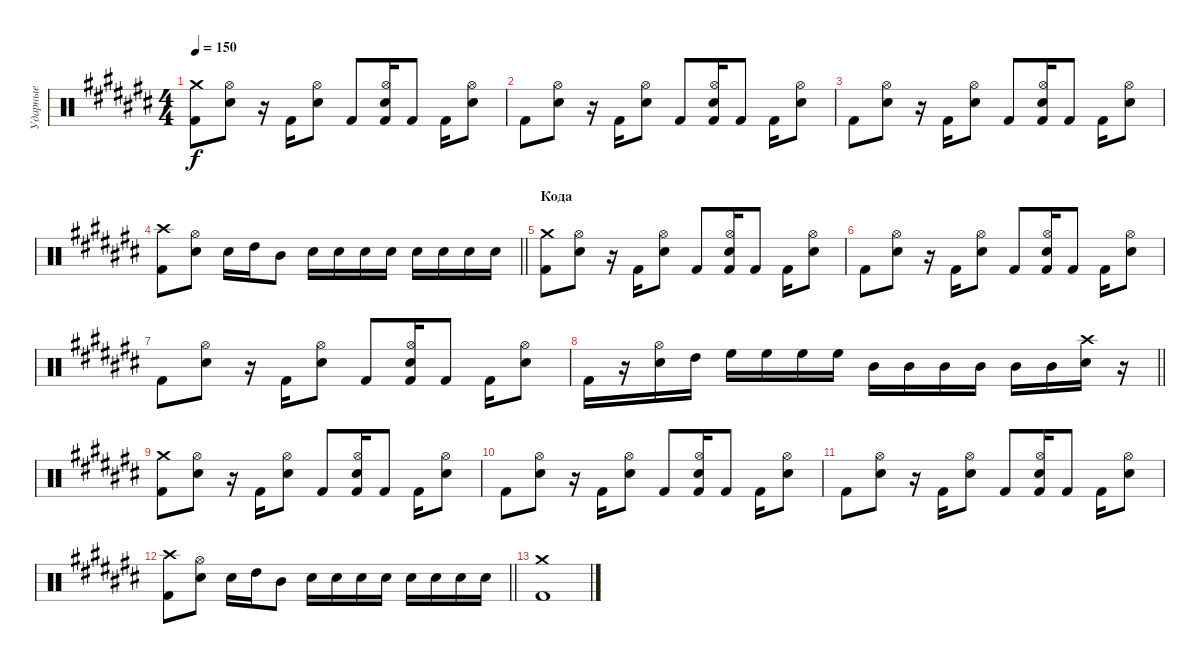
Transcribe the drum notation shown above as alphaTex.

\track ("Ударные" "Ударные") {instrument percussion}
\staff {score}
\articulation defaults
\ts (4 4)
\tempo 150
\clef neutral
\ks a#minor
("Crash medium (hit)" "Kick (hit) 2").8{dy f} ("Hi-Hat (open)" "Electric Snare (hit)").8 r.16 "Kick (hit) 2".16 ("Hi-Hat (open)" "Electric Snare (hit)").8 "Kick (hit) 2".8 ("Kick (hit) 2" "Hi-Hat (open)" "Electric Snare (hit)").16 "Kick (hit) 2".8 "Kick (hit) 2".16 ("Hi-Hat (open)" "Electric Snare (hit)").8 |
"Kick (hit) 2".8 ("Hi-Hat (open)" "Electric Snare (hit)").8 r.16 "Kick (hit) 2".16 ("Hi-Hat (open)" "Electric Snare (hit)").8 "Kick (hit) 2".8 ("Kick (hit) 2" "Hi-Hat (open)" "Electric Snare (hit)").16 "Kick (hit) 2".8 "Kick (hit) 2".16 ("Hi-Hat (open)" "Electric Snare (hit)").8 |
"Kick (hit) 2".8 ("Hi-Hat (open)" "Electric Snare (hit)").8 r.16 "Kick (hit) 2".16 ("Hi-Hat (open)" "Electric Snare (hit)").8 "Kick (hit) 2".8 ("Kick (hit) 2" "Hi-Hat (open)" "Electric Snare (hit)").16 "Kick (hit) 2".8 "Kick (hit) 2".16 ("Hi-Hat (open)" "Electric Snare (hit)").8 |
\barLineRight lightlight
("Crash high (hit)" "Kick (hit) 2").8 ("Hi-Hat (open)" "Electric Snare (hit)").8 "Electric Snare (hit)".16 "High Tom (hit)".16 "Mid Tom (hit)".8 "Electric Snare (hit)".16 "Electric Snare (hit)".16 "Electric Snare (hit)".16 "Electric Snare (hit)".16 "Electric Snare (hit)".16 "Electric Snare (hit)".16 "Electric Snare (hit)".16 "Electric Snare (hit)".16 |
\section ("" "Кода")
("Crash medium (hit)" "Kick (hit) 2").8 ("Hi-Hat (open)" "Electric Snare (hit)").8 r.16 "Kick (hit) 2".16 ("Hi-Hat (open)" "Electric Snare (hit)").8 "Kick (hit) 2".8 ("Kick (hit) 2" "Hi-Hat (open)" "Electric Snare (hit)").16 "Kick (hit) 2".8 "Kick (hit) 2".16 ("Hi-Hat (open)" "Electric Snare (hit)").8 |
"Kick (hit) 2".8 ("Hi-Hat (open)" "Electric Snare (hit)").8 r.16 "Kick (hit) 2".16 ("Hi-Hat (open)" "Electric Snare (hit)").8 "Kick (hit) 2".8 ("Kick (hit) 2" "Hi-Hat (open)" "Electric Snare (hit)").16 "Kick (hit) 2".8 "Kick (hit) 2".16 ("Hi-Hat (open)" "Electric Snare (hit)").8 |
"Kick (hit) 2".8 ("Hi-Hat (open)" "Electric Snare (hit)").8 r.16 "Kick (hit) 2".16 ("Hi-Hat (open)" "Electric Snare (hit)").8 "Kick (hit) 2".8 ("Kick (hit) 2" "Hi-Hat (open)" "Electric Snare (hit)").16 "Kick (hit) 2".8 "Kick (hit) 2".16 ("Hi-Hat (open)" "Electric Snare (hit)").8 |
\barLineRight lightlight "Kick (hit) 2".16
r.16 ("Hi-Hat (open)" "Electric Snare (hit)").16 "High Tom (hit)".16 "High Floor Tom (hit)".16 "High Floor Tom (hit)".16 "High Floor Tom (hit)".16 "High Floor Tom (hit)".16 "Mid Tom (hit)".16 "Mid Tom (hit)".16 "Mid Tom (hit)".16 "Mid Tom (hit)".16 "Mid Tom (hit)".16 "Mid Tom (hit)".16 ("Crash high (hit)" "Electric Snare (hit)").16 r.16 |
("Crash medium (hit)" "Kick (hit) 2").8 ("Hi-Hat (open)" "Electric Snare (hit)").8 r.16 "Kick (hit) 2".16 ("Hi-Hat (open)" "Electric Snare (hit)").8 "Kick (hit) 2".8 ("Kick (hit) 2" "Hi-Hat (open)" "Electric Snare (hit)").16 "Kick (hit) 2".8 "Kick (hit) 2".16 ("Hi-Hat (open)" "Electric Snare (hit)").8 |
"Kick (hit) 2".8 ("Hi-Hat (open)" "Electric Snare (hit)").8 r.16 "Kick (hit) 2".16 ("Hi-Hat (open)" "Electric Snare (hit)").8 "Kick (hit) 2".8 ("Kick (hit) 2" "Hi-Hat (open)" "Electric Snare (hit)").16 "Kick (hit) 2".8 "Kick (hit) 2".16 ("Hi-Hat (open)" "Electric Snare (hit)").8 |
"Kick (hit) 2".8 ("Hi-Hat (open)" "Electric Snare (hit)").8 r.16 "Kick (hit) 2".16 ("Hi-Hat (open)" "Electric Snare (hit)").8 "Kick (hit) 2".8 ("Kick (hit) 2" "Hi-Hat (open)" "Electric Snare (hit)").16 "Kick (hit) 2".8 "Kick (hit) 2".16 ("Hi-Hat (open)" "Electric Snare (hit)").8 |
\barLineRight lightlight
("Crash high (hit)" "Kick (hit) 2").8 ("Hi-Hat (open)" "Electric Snare (hit)").8 "Electric Snare (hit)".16 "High Tom (hit)".16 "Mid Tom (hit)".8 "Electric Snare (hit)".16 "Electric Snare (hit)".16 "Electric Snare (hit)".16 "Electric Snare (hit)".16 "Electric Snare (hit)".16 "Electric Snare (hit)".16 "Electric Snare (hit)".16 "Electric Snare (hit)".16 |
\section ("" "")
("Crash medium (hit)" "Kick (hit) 2").1
